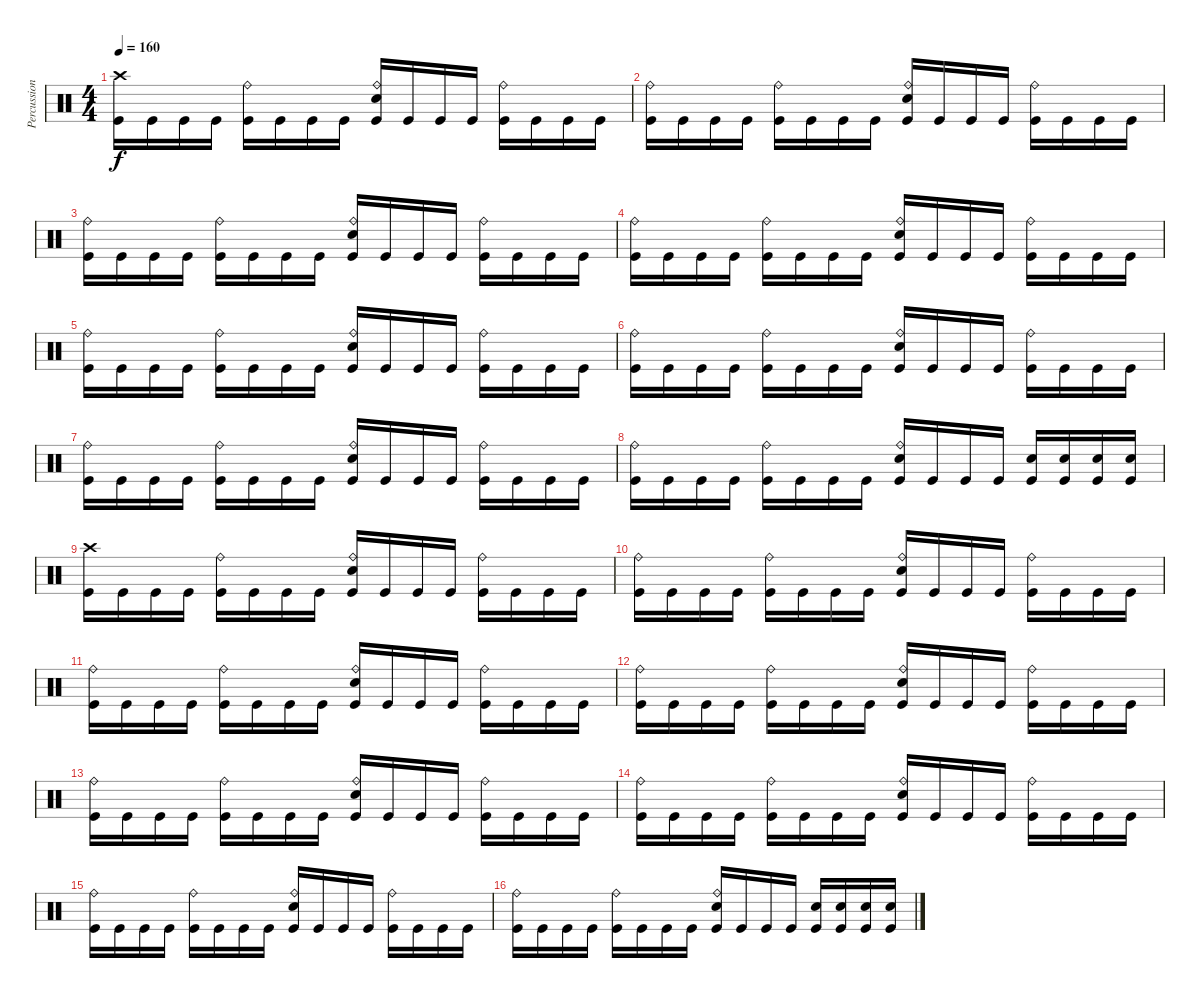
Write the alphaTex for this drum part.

\track ("Percussioni" "Percussion") {instrument percussion}
\staff {score}
\articulation defaults
\ts (4 4)
\tempo 160
\clef neutral
\ks c
("Crash high (hit)" "Kick (hit)").16{dy f} "Kick (hit)".16 "Kick (hit)".16 "Kick (hit)".16 ("Ride (bell)" "Kick (hit)").16 "Kick (hit)".16 "Kick (hit)".16 "Kick (hit)".16 ("Snare (hit) 2" "Ride (bell)" "Kick (hit)").16 "Kick (hit)".16 "Kick (hit)".16 "Kick (hit)".16 ("Ride (bell)" "Kick (hit)").16 "Kick (hit)".16 "Kick (hit)".16 "Kick (hit)".16 |
("Ride (bell)" "Kick (hit)").16 "Kick (hit)".16 "Kick (hit)".16 "Kick (hit)".16 ("Ride (bell)" "Kick (hit)").16 "Kick (hit)".16 "Kick (hit)".16 "Kick (hit)".16 ("Snare (hit) 2" "Ride (bell)" "Kick (hit)").16 "Kick (hit)".16 "Kick (hit)".16 "Kick (hit)".16 ("Ride (bell)" "Kick (hit)").16 "Kick (hit)".16 "Kick (hit)".16 "Kick (hit)".16 |
("Ride (bell)" "Kick (hit)").16 "Kick (hit)".16 "Kick (hit)".16 "Kick (hit)".16 ("Ride (bell)" "Kick (hit)").16 "Kick (hit)".16 "Kick (hit)".16 "Kick (hit)".16 ("Snare (hit) 2" "Ride (bell)" "Kick (hit)").16 "Kick (hit)".16 "Kick (hit)".16 "Kick (hit)".16 ("Ride (bell)" "Kick (hit)").16 "Kick (hit)".16 "Kick (hit)".16 "Kick (hit)".16 |
("Ride (bell)" "Kick (hit)").16 "Kick (hit)".16 "Kick (hit)".16 "Kick (hit)".16 ("Ride (bell)" "Kick (hit)").16 "Kick (hit)".16 "Kick (hit)".16 "Kick (hit)".16 ("Snare (hit) 2" "Ride (bell)" "Kick (hit)").16 "Kick (hit)".16 "Kick (hit)".16 "Kick (hit)".16 ("Ride (bell)" "Kick (hit)").16 "Kick (hit)".16 "Kick (hit)".16 "Kick (hit)".16 |
("Ride (bell)" "Kick (hit)").16 "Kick (hit)".16 "Kick (hit)".16 "Kick (hit)".16 ("Ride (bell)" "Kick (hit)").16 "Kick (hit)".16 "Kick (hit)".16 "Kick (hit)".16 ("Snare (hit) 2" "Ride (bell)" "Kick (hit)").16 "Kick (hit)".16 "Kick (hit)".16 "Kick (hit)".16 ("Ride (bell)" "Kick (hit)").16 "Kick (hit)".16 "Kick (hit)".16 "Kick (hit)".16 |
("Ride (bell)" "Kick (hit)").16 "Kick (hit)".16 "Kick (hit)".16 "Kick (hit)".16 ("Ride (bell)" "Kick (hit)").16 "Kick (hit)".16 "Kick (hit)".16 "Kick (hit)".16 ("Snare (hit) 2" "Ride (bell)" "Kick (hit)").16 "Kick (hit)".16 "Kick (hit)".16 "Kick (hit)".16 ("Ride (bell)" "Kick (hit)").16 "Kick (hit)".16 "Kick (hit)".16 "Kick (hit)".16 |
("Ride (bell)" "Kick (hit)").16 "Kick (hit)".16 "Kick (hit)".16 "Kick (hit)".16 ("Ride (bell)" "Kick (hit)").16 "Kick (hit)".16 "Kick (hit)".16 "Kick (hit)".16 ("Snare (hit) 2" "Ride (bell)" "Kick (hit)").16 "Kick (hit)".16 "Kick (hit)".16 "Kick (hit)".16 ("Ride (bell)" "Kick (hit)").16 "Kick (hit)".16 "Kick (hit)".16 "Kick (hit)".16 |
("Ride (bell)" "Kick (hit)").16 "Kick (hit)".16 "Kick (hit)".16 "Kick (hit)".16 ("Ride (bell)" "Kick (hit)").16 "Kick (hit)".16 "Kick (hit)".16 "Kick (hit)".16 ("Snare (hit) 2" "Ride (bell)" "Kick (hit)").16 "Kick (hit)".16 "Kick (hit)".16 "Kick (hit)".16 ("Snare (hit) 2" "Kick (hit)").16 ("Snare (hit) 2" "Kick (hit)").16 ("Snare (hit) 2" "Kick (hit)").16 ("Snare (hit) 2" "Kick (hit)").16 |
("Crash high (hit)" "Kick (hit)").16 "Kick (hit)".16 "Kick (hit)".16 "Kick (hit)".16 ("Ride (bell)" "Kick (hit)").16 "Kick (hit)".16 "Kick (hit)".16 "Kick (hit)".16 ("Snare (hit) 2" "Ride (bell)" "Kick (hit)").16 "Kick (hit)".16 "Kick (hit)".16 "Kick (hit)".16 ("Ride (bell)" "Kick (hit)").16 "Kick (hit)".16 "Kick (hit)".16 "Kick (hit)".16 |
("Ride (bell)" "Kick (hit)").16 "Kick (hit)".16 "Kick (hit)".16 "Kick (hit)".16 ("Ride (bell)" "Kick (hit)").16 "Kick (hit)".16 "Kick (hit)".16 "Kick (hit)".16 ("Snare (hit) 2" "Ride (bell)" "Kick (hit)").16 "Kick (hit)".16 "Kick (hit)".16 "Kick (hit)".16 ("Ride (bell)" "Kick (hit)").16 "Kick (hit)".16 "Kick (hit)".16 "Kick (hit)".16 |
("Ride (bell)" "Kick (hit)").16 "Kick (hit)".16 "Kick (hit)".16 "Kick (hit)".16 ("Ride (bell)" "Kick (hit)").16 "Kick (hit)".16 "Kick (hit)".16 "Kick (hit)".16 ("Snare (hit) 2" "Ride (bell)" "Kick (hit)").16 "Kick (hit)".16 "Kick (hit)".16 "Kick (hit)".16 ("Ride (bell)" "Kick (hit)").16 "Kick (hit)".16 "Kick (hit)".16 "Kick (hit)".16 |
("Ride (bell)" "Kick (hit)").16 "Kick (hit)".16 "Kick (hit)".16 "Kick (hit)".16 ("Ride (bell)" "Kick (hit)").16 "Kick (hit)".16 "Kick (hit)".16 "Kick (hit)".16 ("Snare (hit) 2" "Ride (bell)" "Kick (hit)").16 "Kick (hit)".16 "Kick (hit)".16 "Kick (hit)".16 ("Ride (bell)" "Kick (hit)").16 "Kick (hit)".16 "Kick (hit)".16 "Kick (hit)".16 |
("Ride (bell)" "Kick (hit)").16 "Kick (hit)".16 "Kick (hit)".16 "Kick (hit)".16 ("Ride (bell)" "Kick (hit)").16 "Kick (hit)".16 "Kick (hit)".16 "Kick (hit)".16 ("Snare (hit) 2" "Ride (bell)" "Kick (hit)").16 "Kick (hit)".16 "Kick (hit)".16 "Kick (hit)".16 ("Ride (bell)" "Kick (hit)").16 "Kick (hit)".16 "Kick (hit)".16 "Kick (hit)".16 |
("Ride (bell)" "Kick (hit)").16 "Kick (hit)".16 "Kick (hit)".16 "Kick (hit)".16 ("Ride (bell)" "Kick (hit)").16 "Kick (hit)".16 "Kick (hit)".16 "Kick (hit)".16 ("Snare (hit) 2" "Ride (bell)" "Kick (hit)").16 "Kick (hit)".16 "Kick (hit)".16 "Kick (hit)".16 ("Ride (bell)" "Kick (hit)").16 "Kick (hit)".16 "Kick (hit)".16 "Kick (hit)".16 |
("Ride (bell)" "Kick (hit)").16 "Kick (hit)".16 "Kick (hit)".16 "Kick (hit)".16 ("Ride (bell)" "Kick (hit)").16 "Kick (hit)".16 "Kick (hit)".16 "Kick (hit)".16 ("Snare (hit) 2" "Ride (bell)" "Kick (hit)").16 "Kick (hit)".16 "Kick (hit)".16 "Kick (hit)".16 ("Ride (bell)" "Kick (hit)").16 "Kick (hit)".16 "Kick (hit)".16 "Kick (hit)".16 |
("Ride (bell)" "Kick (hit)").16 "Kick (hit)".16 "Kick (hit)".16 "Kick (hit)".16 ("Ride (bell)" "Kick (hit)").16 "Kick (hit)".16 "Kick (hit)".16 "Kick (hit)".16 ("Snare (hit) 2" "Ride (bell)" "Kick (hit)").16 "Kick (hit)".16 "Kick (hit)".16 "Kick (hit)".16 ("Snare (hit) 2" "Kick (hit)").16 ("Snare (hit) 2" "Kick (hit)").16 ("Snare (hit) 2" "Kick (hit)").16 ("Snare (hit) 2" "Kick (hit)").16
